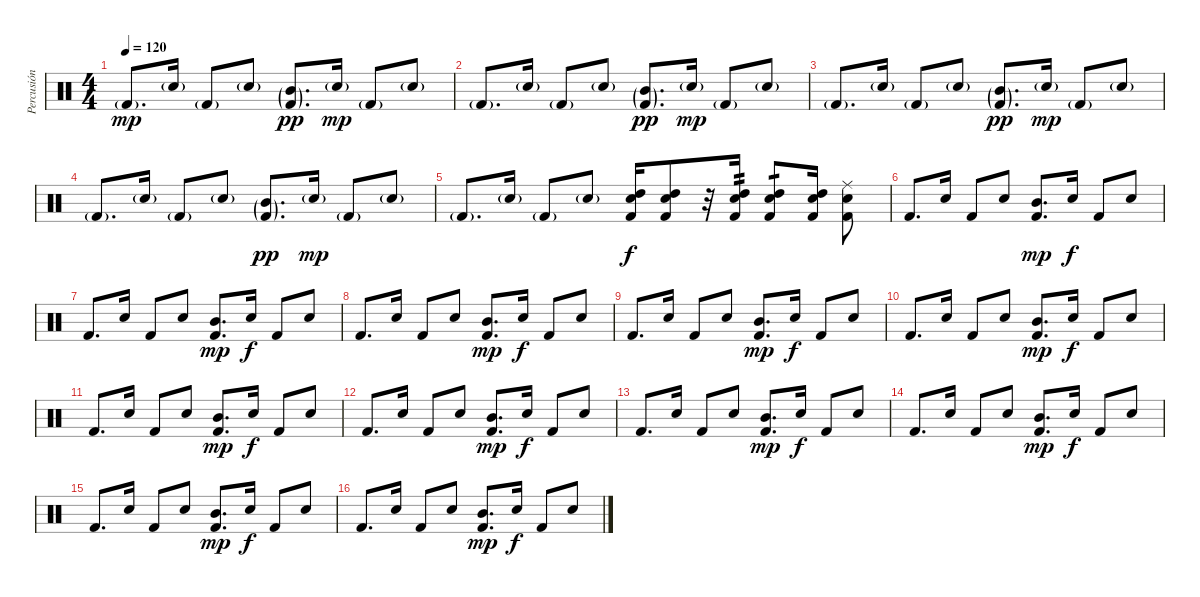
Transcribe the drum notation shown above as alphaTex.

\track ("Percusión" "Percusión") {instrument percussion}
\staff {score}
\articulation defaults
\ts (4 4)
\tempo 120
\clef neutral
\ks c "Kick (hit) 2"{g}.8{d dy mp} "Electric Snare (hit)"{g}.16 "Kick (hit) 2"{g}.8 "Electric Snare (hit)"{g}.8
("Kick (hit) 2"{g} "Mid Tom (hit)"{g}).8{d dy pp} "Electric Snare (hit)"{g}.16{dy mp} "Kick (hit) 2"{g}.8 "Electric Snare (hit)"{g}.8 |
"Kick (hit) 2"{g}.8{d} "Electric Snare (hit)"{g}.16 "Kick (hit) 2"{g}.8 "Electric Snare (hit)"{g}.8 ("Kick (hit) 2"{g} "Mid Tom (hit)"{g}).8{d dy pp} "Electric Snare (hit)"{g}.16{dy mp} "Kick (hit) 2"{g}.8 "Electric Snare (hit)"{g}.8 |
"Kick (hit) 2"{g}.8{d} "Electric Snare (hit)"{g}.16 "Kick (hit) 2"{g}.8 "Electric Snare (hit)"{g}.8 ("Kick (hit) 2"{g} "Mid Tom (hit)"{g}).8{d dy pp} "Electric Snare (hit)"{g}.16{dy mp} "Kick (hit) 2"{g}.8 "Electric Snare (hit)"{g}.8 |
"Kick (hit) 2"{g}.8{d} "Electric Snare (hit)"{g}.16 "Kick (hit) 2"{g}.8 "Electric Snare (hit)"{g}.8 ("Kick (hit) 2"{g} "Mid Tom (hit)"{g}).8{d dy pp} "Electric Snare (hit)"{g}.16{dy mp} "Kick (hit) 2"{g}.8 "Electric Snare (hit)"{g}.8 |
"Kick (hit) 2"{g}.8{d} "Electric Snare (hit)"{g}.16 "Kick (hit) 2"{g}.8 "Electric Snare (hit)"{g}.8 ("High Tom (hit)" "Electric Snare (hit)" "Kick (hit) 2").16{dy f} ("High Tom (hit)" "Electric Snare (hit)" "Kick (hit) 2").8 r.32 ("High Tom (hit)" "Electric Snare (hit)" "Kick (hit) 2").16{tp 2} ("High Tom (hit)" "Electric Snare (hit)" "Kick (hit) 2").8{tp 1} ("High Tom (hit)" "Electric Snare (hit)" "Kick (hit) 2").16{beam split} ("Ride (middle)" "Electric Snare (hit)" "Kick (hit) 2").8 |
"Kick (hit) 2".8{d} "Electric Snare (hit)".16 "Kick (hit) 2".8 "Electric Snare (hit)".8 ("Kick (hit) 2" "Mid Tom (hit)").8{d dy mp} "Electric Snare (hit)".16{dy f} "Kick (hit) 2".8 "Electric Snare (hit)".8 |
"Kick (hit) 2".8{d} "Electric Snare (hit)".16 "Kick (hit) 2".8 "Electric Snare (hit)".8 ("Kick (hit) 2" "Mid Tom (hit)").8{d dy mp} "Electric Snare (hit)".16{dy f} "Kick (hit) 2".8 "Electric Snare (hit)".8 |
"Kick (hit) 2".8{d} "Electric Snare (hit)".16 "Kick (hit) 2".8 "Electric Snare (hit)".8 ("Kick (hit) 2" "Mid Tom (hit)").8{d dy mp} "Electric Snare (hit)".16{dy f} "Kick (hit) 2".8 "Electric Snare (hit)".8 |
"Kick (hit) 2".8{d} "Electric Snare (hit)".16 "Kick (hit) 2".8 "Electric Snare (hit)".8 ("Kick (hit) 2" "Mid Tom (hit)").8{d dy mp} "Electric Snare (hit)".16{dy f} "Kick (hit) 2".8 "Electric Snare (hit)".8 |
"Kick (hit) 2".8{d} "Electric Snare (hit)".16 "Kick (hit) 2".8 "Electric Snare (hit)".8 ("Kick (hit) 2" "Mid Tom (hit)").8{d dy mp} "Electric Snare (hit)".16{dy f} "Kick (hit) 2".8 "Electric Snare (hit)".8 |
"Kick (hit) 2".8{d} "Electric Snare (hit)".16 "Kick (hit) 2".8 "Electric Snare (hit)".8 ("Kick (hit) 2" "Mid Tom (hit)").8{d dy mp} "Electric Snare (hit)".16{dy f} "Kick (hit) 2".8 "Electric Snare (hit)".8 |
"Kick (hit) 2".8{d} "Electric Snare (hit)".16 "Kick (hit) 2".8 "Electric Snare (hit)".8 ("Kick (hit) 2" "Mid Tom (hit)").8{d dy mp} "Electric Snare (hit)".16{dy f} "Kick (hit) 2".8 "Electric Snare (hit)".8 |
"Kick (hit) 2".8{d} "Electric Snare (hit)".16 "Kick (hit) 2".8 "Electric Snare (hit)".8 ("Kick (hit) 2" "Mid Tom (hit)").8{d dy mp} "Electric Snare (hit)".16{dy f} "Kick (hit) 2".8 "Electric Snare (hit)".8 |
"Kick (hit) 2".8{d} "Electric Snare (hit)".16 "Kick (hit) 2".8 "Electric Snare (hit)".8 ("Kick (hit) 2" "Mid Tom (hit)").8{d dy mp} "Electric Snare (hit)".16{dy f} "Kick (hit) 2".8 "Electric Snare (hit)".8 |
"Kick (hit) 2".8{d} "Electric Snare (hit)".16 "Kick (hit) 2".8 "Electric Snare (hit)".8 ("Kick (hit) 2" "Mid Tom (hit)").8{d dy mp} "Electric Snare (hit)".16{dy f} "Kick (hit) 2".8 "Electric Snare (hit)".8 |
"Kick (hit) 2".8{d} "Electric Snare (hit)".16 "Kick (hit) 2".8 "Electric Snare (hit)".8 ("Kick (hit) 2" "Mid Tom (hit)").8{d dy mp} "Electric Snare (hit)".16{dy f} "Kick (hit) 2".8 "Electric Snare (hit)".8
